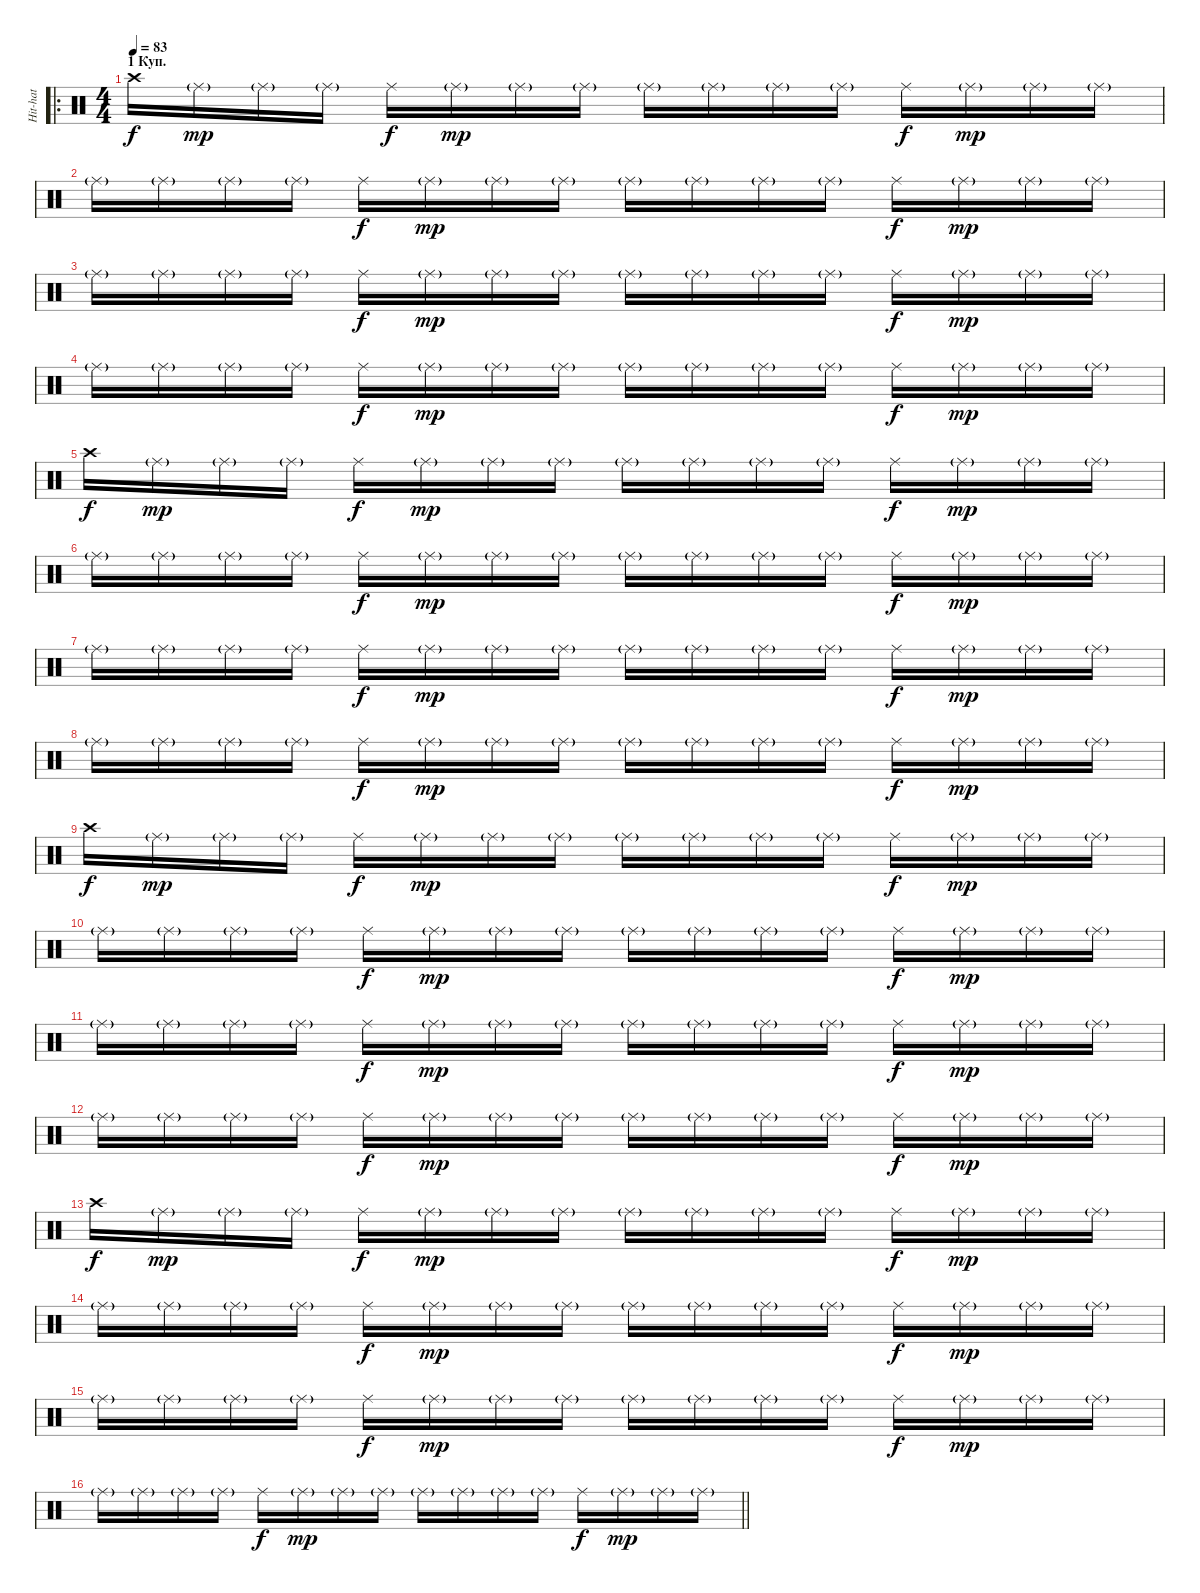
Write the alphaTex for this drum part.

\track ("Hit-hat" "Hit-hat") {instrument percussion}
\staff {score}
\articulation defaults
\ro
\ts (4 4)
\section ("" "1 Куп.")
\tempo 83
\clef neutral
\ks c "Crash high (hit)".16{dy f} "Ride (middle)"{g}.16{dy mp} "Ride (middle)"{g}.16 "Ride (middle)"{g}.16 "Ride (middle)".16{dy f} "Ride (middle)"{g}.16{dy mp} "Ride (middle)"{g}.16 "Ride (middle)"{g}.16 "Ride (middle)"{g}.16 "Ride (middle)"{g}.16 "Ride (middle)"{g}.16 "Ride (middle)"{g}.16 "Ride (middle)".16{dy f} "Ride (middle)"{g}.16{dy mp} "Ride (middle)"{g}.16 "Ride (middle)"{g}.16
|
"Ride (middle)"{g}.16 "Ride (middle)"{g}.16 "Ride (middle)"{g}.16 "Ride (middle)"{g}.16 "Ride (middle)".16{dy f} "Ride (middle)"{g}.16{dy mp} "Ride (middle)"{g}.16 "Ride (middle)"{g}.16 "Ride (middle)"{g}.16 "Ride (middle)"{g}.16 "Ride (middle)"{g}.16 "Ride (middle)"{g}.16 "Ride (middle)".16{dy f} "Ride (middle)"{g}.16{dy mp} "Ride (middle)"{g}.16 "Ride (middle)"{g}.16 |
"Ride (middle)"{g}.16 "Ride (middle)"{g}.16 "Ride (middle)"{g}.16 "Ride (middle)"{g}.16 "Ride (middle)".16{dy f} "Ride (middle)"{g}.16{dy mp} "Ride (middle)"{g}.16 "Ride (middle)"{g}.16 "Ride (middle)"{g}.16 "Ride (middle)"{g}.16 "Ride (middle)"{g}.16 "Ride (middle)"{g}.16 "Ride (middle)".16{dy f} "Ride (middle)"{g}.16{dy mp} "Ride (middle)"{g}.16 "Ride (middle)"{g}.16 |
"Ride (middle)"{g}.16 "Ride (middle)"{g}.16 "Ride (middle)"{g}.16 "Ride (middle)"{g}.16 "Ride (middle)".16{dy f} "Ride (middle)"{g}.16{dy mp} "Ride (middle)"{g}.16 "Ride (middle)"{g}.16 "Ride (middle)"{g}.16 "Ride (middle)"{g}.16 "Ride (middle)"{g}.16 "Ride (middle)"{g}.16 "Ride (middle)".16{dy f} "Ride (middle)"{g}.16{dy mp} "Ride (middle)"{g}.16 "Ride (middle)"{g}.16 |
"Crash high (hit)".16{dy f} "Ride (middle)"{g}.16{dy mp} "Ride (middle)"{g}.16 "Ride (middle)"{g}.16 "Ride (middle)".16{dy f} "Ride (middle)"{g}.16{dy mp} "Ride (middle)"{g}.16 "Ride (middle)"{g}.16 "Ride (middle)"{g}.16 "Ride (middle)"{g}.16 "Ride (middle)"{g}.16 "Ride (middle)"{g}.16 "Ride (middle)".16{dy f} "Ride (middle)"{g}.16{dy mp} "Ride (middle)"{g}.16 "Ride (middle)"{g}.16 |
"Ride (middle)"{g}.16 "Ride (middle)"{g}.16 "Ride (middle)"{g}.16 "Ride (middle)"{g}.16 "Ride (middle)".16{dy f} "Ride (middle)"{g}.16{dy mp} "Ride (middle)"{g}.16 "Ride (middle)"{g}.16 "Ride (middle)"{g}.16 "Ride (middle)"{g}.16 "Ride (middle)"{g}.16 "Ride (middle)"{g}.16 "Ride (middle)".16{dy f} "Ride (middle)"{g}.16{dy mp} "Ride (middle)"{g}.16 "Ride (middle)"{g}.16 |
"Ride (middle)"{g}.16 "Ride (middle)"{g}.16 "Ride (middle)"{g}.16 "Ride (middle)"{g}.16 "Ride (middle)".16{dy f} "Ride (middle)"{g}.16{dy mp} "Ride (middle)"{g}.16 "Ride (middle)"{g}.16 "Ride (middle)"{g}.16 "Ride (middle)"{g}.16 "Ride (middle)"{g}.16 "Ride (middle)"{g}.16 "Ride (middle)".16{dy f} "Ride (middle)"{g}.16{dy mp} "Ride (middle)"{g}.16 "Ride (middle)"{g}.16 |
"Ride (middle)"{g}.16 "Ride (middle)"{g}.16 "Ride (middle)"{g}.16 "Ride (middle)"{g}.16 "Ride (middle)".16{dy f} "Ride (middle)"{g}.16{dy mp} "Ride (middle)"{g}.16 "Ride (middle)"{g}.16 "Ride (middle)"{g}.16 "Ride (middle)"{g}.16 "Ride (middle)"{g}.16 "Ride (middle)"{g}.16 "Ride (middle)".16{dy f} "Ride (middle)"{g}.16{dy mp} "Ride (middle)"{g}.16 "Ride (middle)"{g}.16 |
"Crash high (hit)".16{dy f} "Ride (middle)"{g}.16{dy mp} "Ride (middle)"{g}.16 "Ride (middle)"{g}.16 "Ride (middle)".16{dy f} "Ride (middle)"{g}.16{dy mp} "Ride (middle)"{g}.16 "Ride (middle)"{g}.16 "Ride (middle)"{g}.16 "Ride (middle)"{g}.16 "Ride (middle)"{g}.16 "Ride (middle)"{g}.16 "Ride (middle)".16{dy f} "Ride (middle)"{g}.16{dy mp} "Ride (middle)"{g}.16 "Ride (middle)"{g}.16 |
"Ride (middle)"{g}.16 "Ride (middle)"{g}.16 "Ride (middle)"{g}.16 "Ride (middle)"{g}.16 "Ride (middle)".16{dy f} "Ride (middle)"{g}.16{dy mp} "Ride (middle)"{g}.16 "Ride (middle)"{g}.16 "Ride (middle)"{g}.16 "Ride (middle)"{g}.16 "Ride (middle)"{g}.16 "Ride (middle)"{g}.16 "Ride (middle)".16{dy f} "Ride (middle)"{g}.16{dy mp} "Ride (middle)"{g}.16 "Ride (middle)"{g}.16 |
"Ride (middle)"{g}.16 "Ride (middle)"{g}.16 "Ride (middle)"{g}.16 "Ride (middle)"{g}.16 "Ride (middle)".16{dy f} "Ride (middle)"{g}.16{dy mp} "Ride (middle)"{g}.16 "Ride (middle)"{g}.16 "Ride (middle)"{g}.16 "Ride (middle)"{g}.16 "Ride (middle)"{g}.16 "Ride (middle)"{g}.16 "Ride (middle)".16{dy f} "Ride (middle)"{g}.16{dy mp} "Ride (middle)"{g}.16 "Ride (middle)"{g}.16 |
"Ride (middle)"{g}.16 "Ride (middle)"{g}.16 "Ride (middle)"{g}.16 "Ride (middle)"{g}.16 "Ride (middle)".16{dy f} "Ride (middle)"{g}.16{dy mp} "Ride (middle)"{g}.16 "Ride (middle)"{g}.16 "Ride (middle)"{g}.16 "Ride (middle)"{g}.16 "Ride (middle)"{g}.16 "Ride (middle)"{g}.16 "Ride (middle)".16{dy f} "Ride (middle)"{g}.16{dy mp} "Ride (middle)"{g}.16 "Ride (middle)"{g}.16 |
"Crash high (hit)".16{dy f} "Ride (middle)"{g}.16{dy mp} "Ride (middle)"{g}.16 "Ride (middle)"{g}.16 "Ride (middle)".16{dy f} "Ride (middle)"{g}.16{dy mp} "Ride (middle)"{g}.16 "Ride (middle)"{g}.16 "Ride (middle)"{g}.16 "Ride (middle)"{g}.16 "Ride (middle)"{g}.16 "Ride (middle)"{g}.16 "Ride (middle)".16{dy f} "Ride (middle)"{g}.16{dy mp} "Ride (middle)"{g}.16 "Ride (middle)"{g}.16 |
"Ride (middle)"{g}.16 "Ride (middle)"{g}.16 "Ride (middle)"{g}.16 "Ride (middle)"{g}.16 "Ride (middle)".16{dy f} "Ride (middle)"{g}.16{dy mp} "Ride (middle)"{g}.16 "Ride (middle)"{g}.16 "Ride (middle)"{g}.16 "Ride (middle)"{g}.16 "Ride (middle)"{g}.16 "Ride (middle)"{g}.16 "Ride (middle)".16{dy f} "Ride (middle)"{g}.16{dy mp} "Ride (middle)"{g}.16 "Ride (middle)"{g}.16 |
"Ride (middle)"{g}.16 "Ride (middle)"{g}.16 "Ride (middle)"{g}.16 "Ride (middle)"{g}.16 "Ride (middle)".16{dy f} "Ride (middle)"{g}.16{dy mp} "Ride (middle)"{g}.16 "Ride (middle)"{g}.16 "Ride (middle)"{g}.16 "Ride (middle)"{g}.16 "Ride (middle)"{g}.16 "Ride (middle)"{g}.16 "Ride (middle)".16{dy f} "Ride (middle)"{g}.16{dy mp} "Ride (middle)"{g}.16 "Ride (middle)"{g}.16 |
\barLineRight lightlight "Ride (middle)"{g}.16 "Ride (middle)"{g}.16 "Ride (middle)"{g}.16 "Ride (middle)"{g}.16 "Ride (middle)".16{dy f} "Ride (middle)"{g}.16{dy mp} "Ride (middle)"{g}.16 "Ride (middle)"{g}.16 "Ride (middle)"{g}.16 "Ride (middle)"{g}.16 "Ride (middle)"{g}.16 "Ride (middle)"{g}.16 "Ride (middle)".16{dy f} "Ride (middle)"{g}.16{dy mp} "Ride (middle)"{g}.16 "Ride (middle)"{g}.16
